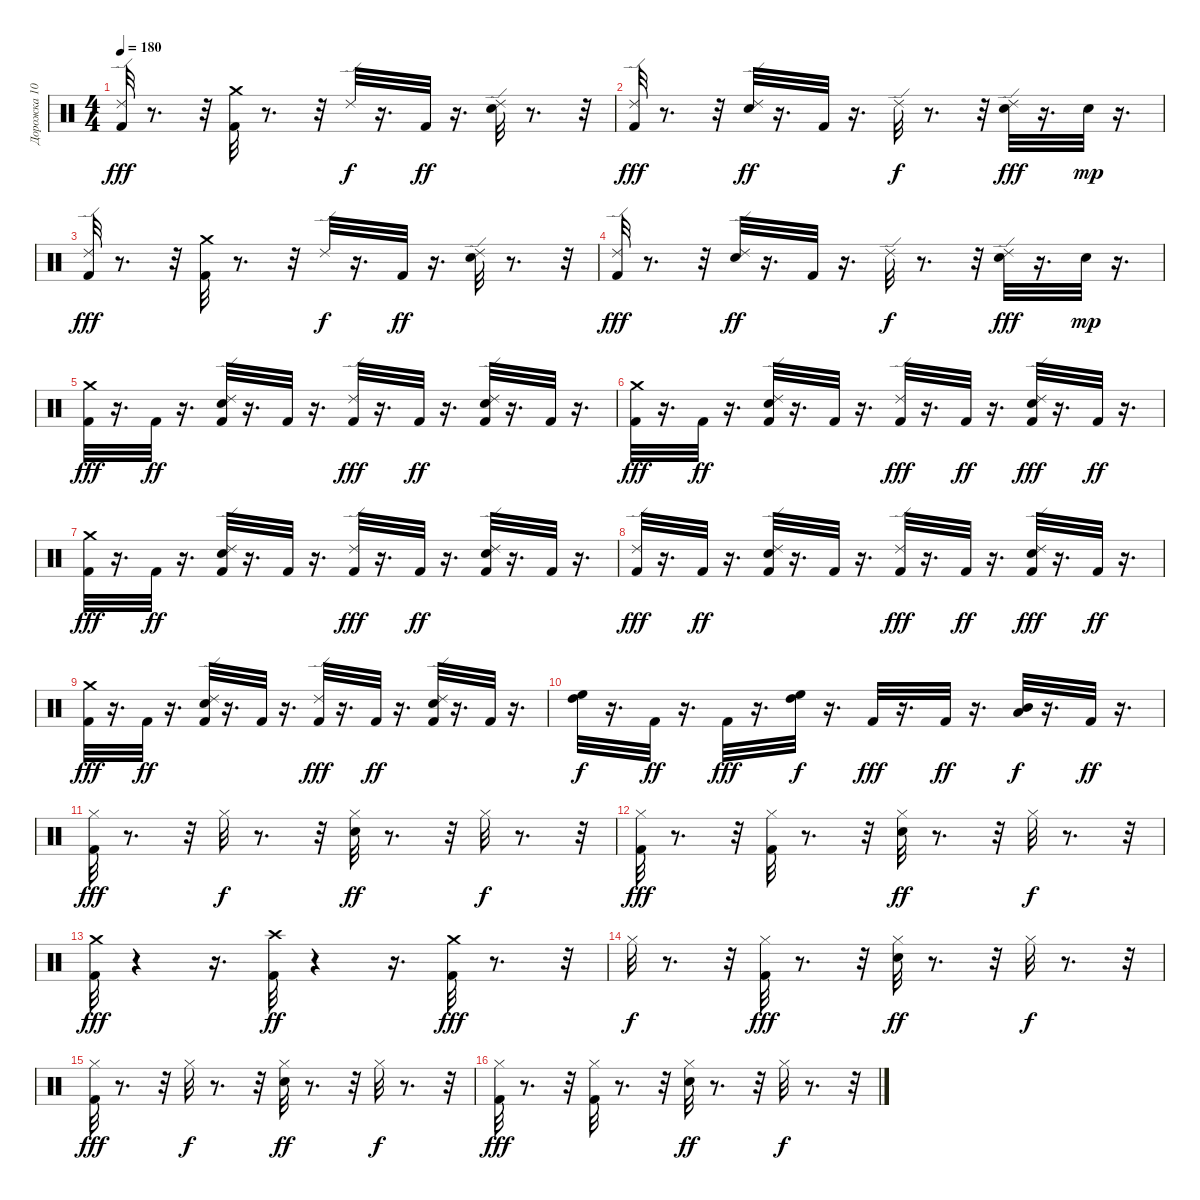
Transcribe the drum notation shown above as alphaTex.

\track ("Дорожка 10" "Дорожка 10") {instrument percussion}
\staff {score}
\articulation defaults
\ts (4 4)
\tempo 180
\clef neutral
\ks c
("Kick (hit) 2" "Ride (edge) 2").32{dy fff} r.8{d} r.32 ("Kick (hit) 2" "Crash medium (hit)").32 r.8{d} r.32 "Ride (edge) 2".32{dy f} r.16{d} "Kick (hit) 2".32{dy ff} r.16{d} ("Snare (hit) 2" "Ride (edge) 2").32 r.8{d} r.32 |
("Ride (edge) 2" "Kick (hit) 2").32{dy fff} r.8{d} r.32 ("Snare (hit) 2" "Ride (edge) 2").32{dy ff} r.16{d} "Kick (hit) 2".32 r.16{d} "Ride (edge) 2".32{dy f} r.8{d} r.32 ("Snare (hit) 2" "Ride (edge) 2").32{dy fff} r.16{d} "Snare (hit) 2".32{dy mp} r.16{d} |
("Kick (hit) 2" "Ride (edge) 2").32{dy fff} r.8{d} r.32 ("Kick (hit) 2" "Crash medium (hit)").32 r.8{d} r.32 "Ride (edge) 2".32{dy f} r.16{d} "Kick (hit) 2".32{dy ff} r.16{d} ("Snare (hit) 2" "Ride (edge) 2").32 r.8{d} r.32 |
("Ride (edge) 2" "Kick (hit) 2").32{dy fff} r.8{d} r.32 ("Snare (hit) 2" "Ride (edge) 2").32{dy ff} r.16{d} "Kick (hit) 2".32 r.16{d} "Ride (edge) 2".32{dy f} r.8{d} r.32 ("Snare (hit) 2" "Ride (edge) 2").32{dy fff} r.16{d} "Snare (hit) 2".32{dy mp} r.16{d} |
("Kick (hit) 2" "Crash medium (hit)").32{dy fff} r.16{d} "Kick (hit) 2".32{dy ff} r.16{d} ("Kick (hit) 2" "Snare (hit) 2" "Ride (edge) 2").32 r.16{d} "Kick (hit) 2".32 r.16{d} ("Kick (hit) 2" "Ride (edge) 2").32{dy fff} r.16{d} "Kick (hit) 2".32{dy ff} r.16{d} ("Kick (hit) 2" "Snare (hit) 2" "Ride (edge) 2").32 r.16{d} "Kick (hit) 2".32 r.16{d} |
("Crash medium (hit)" "Kick (hit) 2").32{dy fff} r.16{d} "Kick (hit) 2".32{dy ff} r.16{d} ("Kick (hit) 2" "Snare (hit) 2" "Ride (edge) 2").32 r.16{d} "Kick (hit) 2".32 r.16{d} ("Kick (hit) 2" "Ride (edge) 2").32{dy fff} r.16{d} "Kick (hit) 2".32{dy ff} r.16{d} ("Kick (hit) 2" "Snare (hit) 2" "Ride (edge) 2").32{dy fff} r.16{d} "Kick (hit) 2".32{dy ff} r.16{d} |
("Kick (hit) 2" "Crash medium (hit)").32{dy fff} r.16{d} "Kick (hit) 2".32{dy ff} r.16{d} ("Kick (hit) 2" "Snare (hit) 2" "Ride (edge) 2").32 r.16{d} "Kick (hit) 2".32 r.16{d} ("Kick (hit) 2" "Ride (edge) 2").32{dy fff} r.16{d} "Kick (hit) 2".32{dy ff} r.16{d} ("Kick (hit) 2" "Snare (hit) 2" "Ride (edge) 2").32 r.16{d} "Kick (hit) 2".32 r.16{d} |
("Ride (edge) 2" "Kick (hit) 2").32{dy fff} r.16{d} "Kick (hit) 2".32{dy ff} r.16{d} ("Kick (hit) 2" "Snare (hit) 2" "Ride (edge) 2").32 r.16{d} "Kick (hit) 2".32 r.16{d} ("Kick (hit) 2" "Ride (edge) 2").32{dy fff} r.16{d} "Kick (hit) 2".32{dy ff} r.16{d} ("Kick (hit) 2" "Snare (hit) 2" "Ride (edge) 2").32{dy fff} r.16{d} "Kick (hit) 2".32{dy ff} r.16{d} |
("Kick (hit) 2" "Crash medium (hit)").32{dy fff} r.16{d} "Kick (hit) 2".32{dy ff} r.16{d} ("Kick (hit) 2" "Snare (hit) 2" "Ride (edge) 2").32 r.16{d} "Kick (hit) 2".32 r.16{d} ("Kick (hit) 2" "Ride (edge) 2").32{dy fff} r.16{d} "Kick (hit) 2".32{dy ff} r.16{d} ("Kick (hit) 2" "Snare (hit) 2" "Ride (edge) 2").32 r.16{d} "Kick (hit) 2".32 r.16{d} |
("High Tom (hit)" "High Floor Tom (hit)").32{dy f} r.16{d} "Kick (hit) 2".32{dy ff} r.16{d} "Kick (hit) 2".32{dy fff} r.16{d} ("High Floor Tom (hit)" "High Tom (hit)").32{dy f} r.16{d} "Kick (hit) 2".32{dy fff} r.16{d} "Kick (hit) 2".32{dy ff} r.16{d} ("Mid Tom (hit)" "Low Tom (hit)").32{dy f} r.16{d} "Kick (hit) 2".32{dy ff} r.16{d} |
("Kick (hit) 2" "Hi-Hat (closed)").32{dy fff} r.8{d} r.32 "Hi-Hat (closed)".32{dy f} r.8{d} r.32 ("Snare (hit) 2" "Hi-Hat (closed)").32{dy ff} r.8{d} r.32 "Hi-Hat (closed)".32{dy f} r.8{d} r.32 |
("Hi-Hat (closed)" "Kick (hit) 2").32{dy fff} r.8{d} r.32 ("Kick (hit) 2" "Hi-Hat (closed)").32 r.8{d} r.32 ("Snare (hit) 2" "Hi-Hat (closed)").32{dy ff} r.8{d} r.32 "Hi-Hat (closed)".32{dy f} r.8{d} r.32 |
("Kick (hit) 2" "Crash medium (hit)").32{dy fff} r.4 r.16{d} ("Kick (hit) 2" "Crash high (hit)").32{dy ff} r.4 r.16{d} ("Kick (hit) 2" "Crash medium (hit)").32{dy fff} r.8{d} r.32 |
"Hi-Hat (closed)".32{dy f} r.8{d} r.32 ("Kick (hit) 2" "Hi-Hat (closed)").32{dy fff} r.8{d} r.32 ("Snare (hit) 2" "Hi-Hat (closed)").32{dy ff} r.8{d} r.32 "Hi-Hat (closed)".32{dy f} r.8{d} r.32 |
("Kick (hit) 2" "Hi-Hat (closed)").32{dy fff} r.8{d} r.32 "Hi-Hat (closed)".32{dy f} r.8{d} r.32 ("Snare (hit) 2" "Hi-Hat (closed)").32{dy ff} r.8{d} r.32 "Hi-Hat (closed)".32{dy f} r.8{d} r.32 |
("Hi-Hat (closed)" "Kick (hit) 2").32{dy fff} r.8{d} r.32 ("Kick (hit) 2" "Hi-Hat (closed)").32 r.8{d} r.32 ("Snare (hit) 2" "Hi-Hat (closed)").32{dy ff} r.8{d} r.32 "Hi-Hat (closed)".32{dy f} r.8{d} r.32
